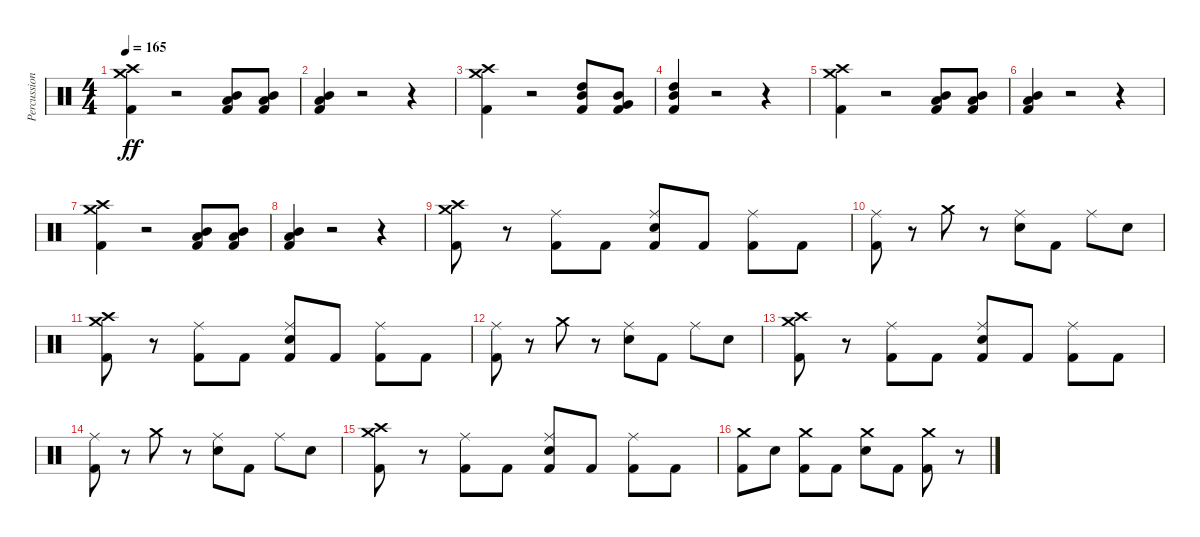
\track ("Percussion" "Percussion") {instrument percussion}
\staff {score}
\articulation defaults
\ts (4 4)
\tempo 165
\clef neutral
\ks c
("Kick (hit) 2" "Crash medium (hit)" "Crash high (hit)").4{dy ff} r.2 ("Kick (hit) 2" "Low Tom (hit)" "Mid Tom (hit)").8 ("Kick (hit) 2" "Low Tom (hit)" "Mid Tom (hit)").8 |
("Kick (hit) 2" "Low Tom (hit)" "Mid Tom (hit)").4 r.2 r.4 |
("Kick (hit) 2" "Crash medium (hit)" "Crash high (hit)").4 r.2 ("Kick (hit) 2" "Mid Tom (hit)" "High Tom (hit)").8 ("Kick (hit) 2" "Mid Tom (hit)" "Very Low Tom (hit)").8 |
("Kick (hit) 2" "Mid Tom (hit)" "High Tom (hit)").4 r.2 r.4 |
("Kick (hit) 2" "Crash medium (hit)" "Crash high (hit)").4 r.2 ("Kick (hit) 2" "Low Tom (hit)" "Mid Tom (hit)").8 ("Kick (hit) 2" "Low Tom (hit)" "Mid Tom (hit)").8 |
("Kick (hit) 2" "Low Tom (hit)" "Mid Tom (hit)").4 r.2 r.4 |
("Kick (hit) 2" "Crash medium (hit)" "Crash high (hit)").4 r.2 ("Kick (hit) 2" "Low Tom (hit)" "Mid Tom (hit)").8 ("Kick (hit) 2" "Low Tom (hit)" "Mid Tom (hit)").8 |
("Kick (hit) 2" "Low Tom (hit)" "Mid Tom (hit)").4 r.2 r.4 |
("Kick (hit) 2" "Crash medium (hit)" "Crash high (hit)").8 r.8 ("Kick (hit) 2" "Ride (middle)").8 "Kick (hit) 2".8 ("Kick (hit) 2" "Electric Snare (hit)" "Ride (middle)").8 "Kick (hit) 2".8 ("Kick (hit) 2" "Ride (middle)").8 "Kick (hit) 2".8 |
("Kick (hit) 2" "Ride (middle)").8 r.8 "Crash medium (hit)".8 r.8 ("Electric Snare (hit)" "Ride (middle)").8 "Kick (hit) 2".8 "Ride (middle)".8 "Electric Snare (hit)".8 |
("Kick (hit) 2" "Crash medium (hit)" "Crash high (hit)").8 r.8 ("Kick (hit) 2" "Ride (middle)").8 "Kick (hit) 2".8 ("Kick (hit) 2" "Electric Snare (hit)" "Ride (middle)").8 "Kick (hit) 2".8 ("Kick (hit) 2" "Ride (middle)").8 "Kick (hit) 2".8 |
("Kick (hit) 2" "Ride (middle)").8 r.8 "Crash medium (hit)".8 r.8 ("Electric Snare (hit)" "Ride (middle)").8 "Kick (hit) 2".8 "Ride (middle)".8 "Electric Snare (hit)".8 |
("Kick (hit) 2" "Crash medium (hit)" "Crash high (hit)").8 r.8 ("Kick (hit) 2" "Ride (middle)").8 "Kick (hit) 2".8 ("Kick (hit) 2" "Electric Snare (hit)" "Ride (middle)").8 "Kick (hit) 2".8 ("Kick (hit) 2" "Ride (middle)").8 "Kick (hit) 2".8 |
("Kick (hit) 2" "Ride (middle)").8 r.8 "Crash medium (hit)".8 r.8 ("Electric Snare (hit)" "Ride (middle)").8 "Kick (hit) 2".8 "Ride (middle)".8 "Electric Snare (hit)".8 |
("Kick (hit) 2" "Crash medium (hit)" "Crash high (hit)").8 r.8 ("Kick (hit) 2" "Ride (middle)").8 "Kick (hit) 2".8 ("Kick (hit) 2" "Electric Snare (hit)" "Ride (middle)").8 "Kick (hit) 2".8 ("Kick (hit) 2" "Ride (middle)").8 "Kick (hit) 2".8 |
("Kick (hit) 2" "Crash medium (hit)").8 "Electric Snare (hit)".8 ("Kick (hit) 2" "Crash medium (hit)").8 "Kick (hit) 2".8 ("Crash medium (hit)" "Electric Snare (hit)").8 "Kick (hit) 2".8 ("Kick (hit) 2" "Crash medium (hit)").8 r.8
